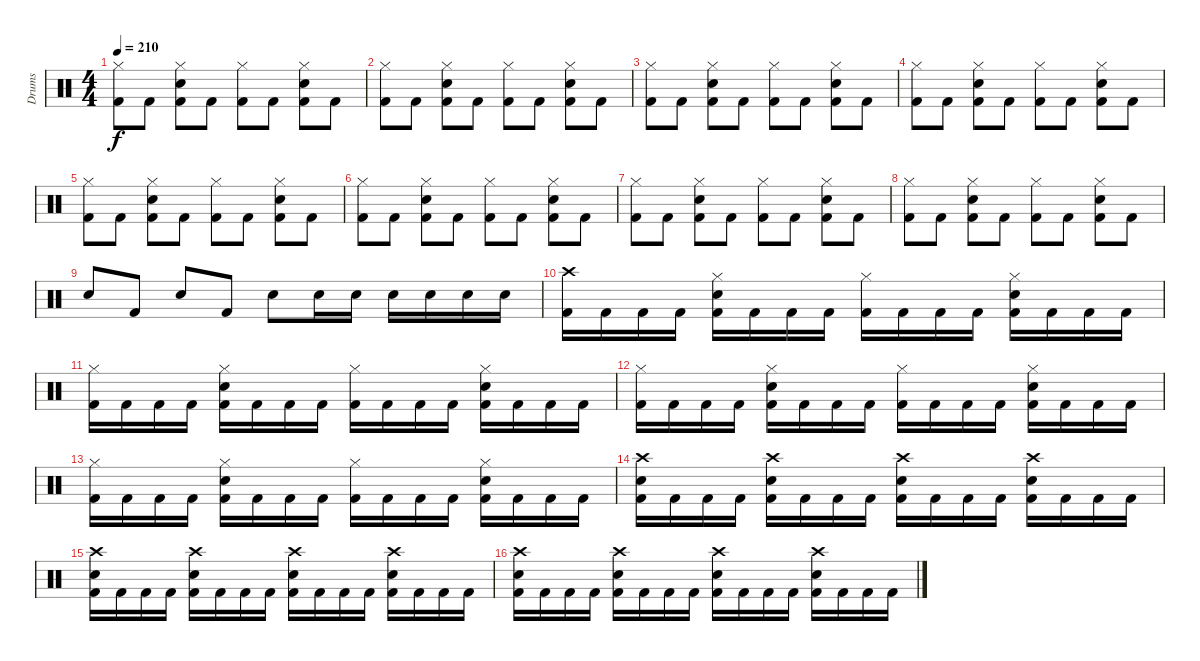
\track ("Drums" "Drums") {instrument percussion}
\staff {score}
\articulation defaults
\ts (4 4)
\tempo 210
\clef neutral
\ks c
("Hi-Hat (closed)" "Kick (hit) 2").8{dy f} "Kick (hit) 2".8 ("Hi-Hat (closed)" "Electric Snare (hit)" "Kick (hit) 2").8 "Kick (hit) 2".8 ("Hi-Hat (closed)" "Kick (hit) 2").8 "Kick (hit) 2".8 ("Hi-Hat (closed)" "Electric Snare (hit)" "Kick (hit) 2").8 "Kick (hit) 2".8 |
("Hi-Hat (closed)" "Kick (hit) 2").8 "Kick (hit) 2".8 ("Hi-Hat (closed)" "Electric Snare (hit)" "Kick (hit) 2").8 "Kick (hit) 2".8 ("Hi-Hat (closed)" "Kick (hit) 2").8 "Kick (hit) 2".8 ("Hi-Hat (closed)" "Electric Snare (hit)" "Kick (hit) 2").8 "Kick (hit) 2".8 |
("Hi-Hat (closed)" "Kick (hit) 2").8 "Kick (hit) 2".8 ("Hi-Hat (closed)" "Electric Snare (hit)" "Kick (hit) 2").8 "Kick (hit) 2".8 ("Hi-Hat (closed)" "Kick (hit) 2").8 "Kick (hit) 2".8 ("Hi-Hat (closed)" "Electric Snare (hit)" "Kick (hit) 2").8 "Kick (hit) 2".8 |
("Hi-Hat (closed)" "Kick (hit) 2").8 "Kick (hit) 2".8 ("Hi-Hat (closed)" "Electric Snare (hit)" "Kick (hit) 2").8 "Kick (hit) 2".8 ("Hi-Hat (closed)" "Kick (hit) 2").8 "Kick (hit) 2".8 ("Hi-Hat (closed)" "Electric Snare (hit)" "Kick (hit) 2").8 "Kick (hit) 2".8 |
("Hi-Hat (closed)" "Kick (hit) 2").8 "Kick (hit) 2".8 ("Hi-Hat (closed)" "Electric Snare (hit)" "Kick (hit) 2").8 "Kick (hit) 2".8 ("Hi-Hat (closed)" "Kick (hit) 2").8 "Kick (hit) 2".8 ("Hi-Hat (closed)" "Electric Snare (hit)" "Kick (hit) 2").8 "Kick (hit) 2".8 |
("Hi-Hat (closed)" "Kick (hit) 2").8 "Kick (hit) 2".8 ("Hi-Hat (closed)" "Electric Snare (hit)" "Kick (hit) 2").8 "Kick (hit) 2".8 ("Hi-Hat (closed)" "Kick (hit) 2").8 "Kick (hit) 2".8 ("Hi-Hat (closed)" "Electric Snare (hit)" "Kick (hit) 2").8 "Kick (hit) 2".8 |
("Hi-Hat (closed)" "Kick (hit) 2").8 "Kick (hit) 2".8 ("Hi-Hat (closed)" "Electric Snare (hit)" "Kick (hit) 2").8 "Kick (hit) 2".8 ("Hi-Hat (closed)" "Kick (hit) 2").8 "Kick (hit) 2".8 ("Hi-Hat (closed)" "Electric Snare (hit)" "Kick (hit) 2").8 "Kick (hit) 2".8 |
("Hi-Hat (closed)" "Kick (hit) 2").8 "Kick (hit) 2".8 ("Hi-Hat (closed)" "Electric Snare (hit)" "Kick (hit) 2").8 "Kick (hit) 2".8 ("Hi-Hat (closed)" "Kick (hit) 2").8 "Kick (hit) 2".8 ("Hi-Hat (closed)" "Electric Snare (hit)" "Kick (hit) 2").8 "Kick (hit) 2".8 |
"Electric Snare (hit)".8 "Kick (hit) 2".8 "Electric Snare (hit)".8 "Kick (hit) 2".8 "Electric Snare (hit)".8 "Electric Snare (hit)".16 "Electric Snare (hit)".16 "Electric Snare (hit)".16 "Electric Snare (hit)".16 "Electric Snare (hit)".16 "Electric Snare (hit)".16 |
("Crash high (hit)" "Kick (hit) 2").16 "Kick (hit) 2".16 "Kick (hit) 2".16 "Kick (hit) 2".16 ("Hi-Hat (closed)" "Electric Snare (hit)" "Kick (hit) 2").16 "Kick (hit) 2".16 "Kick (hit) 2".16 "Kick (hit) 2".16 ("Hi-Hat (closed)" "Kick (hit) 2").16 "Kick (hit) 2".16 "Kick (hit) 2".16 "Kick (hit) 2".16 ("Hi-Hat (closed)" "Electric Snare (hit)" "Kick (hit) 2").16 "Kick (hit) 2".16 "Kick (hit) 2".16 "Kick (hit) 2".16 |
("Hi-Hat (closed)" "Kick (hit) 2").16 "Kick (hit) 2".16 "Kick (hit) 2".16 "Kick (hit) 2".16 ("Hi-Hat (closed)" "Electric Snare (hit)" "Kick (hit) 2").16 "Kick (hit) 2".16 "Kick (hit) 2".16 "Kick (hit) 2".16 ("Hi-Hat (closed)" "Kick (hit) 2").16 "Kick (hit) 2".16 "Kick (hit) 2".16 "Kick (hit) 2".16 ("Hi-Hat (closed)" "Electric Snare (hit)" "Kick (hit) 2").16 "Kick (hit) 2".16 "Kick (hit) 2".16 "Kick (hit) 2".16 |
("Hi-Hat (closed)" "Kick (hit) 2").16 "Kick (hit) 2".16 "Kick (hit) 2".16 "Kick (hit) 2".16 ("Hi-Hat (closed)" "Electric Snare (hit)" "Kick (hit) 2").16 "Kick (hit) 2".16 "Kick (hit) 2".16 "Kick (hit) 2".16 ("Hi-Hat (closed)" "Kick (hit) 2").16 "Kick (hit) 2".16 "Kick (hit) 2".16 "Kick (hit) 2".16 ("Hi-Hat (closed)" "Electric Snare (hit)" "Kick (hit) 2").16 "Kick (hit) 2".16 "Kick (hit) 2".16 "Kick (hit) 2".16 |
("Hi-Hat (closed)" "Kick (hit) 2").16 "Kick (hit) 2".16 "Kick (hit) 2".16 "Kick (hit) 2".16 ("Hi-Hat (closed)" "Electric Snare (hit)" "Kick (hit) 2").16 "Kick (hit) 2".16 "Kick (hit) 2".16 "Kick (hit) 2".16 ("Hi-Hat (closed)" "Kick (hit) 2").16 "Kick (hit) 2".16 "Kick (hit) 2".16 "Kick (hit) 2".16 ("Hi-Hat (closed)" "Electric Snare (hit)" "Kick (hit) 2").16 "Kick (hit) 2".16 "Kick (hit) 2".16 "Kick (hit) 2".16 |
("Crash high (hit)" "Electric Snare (hit)" "Kick (hit) 2").16 "Kick (hit) 2".16 "Kick (hit) 2".16 "Kick (hit) 2".16 ("Crash high (hit)" "Electric Snare (hit)" "Kick (hit) 2").16 "Kick (hit) 2".16 "Kick (hit) 2".16 "Kick (hit) 2".16 ("Crash high (hit)" "Electric Snare (hit)" "Kick (hit) 2").16 "Kick (hit) 2".16 "Kick (hit) 2".16 "Kick (hit) 2".16 ("Crash high (hit)" "Electric Snare (hit)" "Kick (hit) 2").16 "Kick (hit) 2".16 "Kick (hit) 2".16 "Kick (hit) 2".16 |
("Crash high (hit)" "Electric Snare (hit)" "Kick (hit) 2").16 "Kick (hit) 2".16 "Kick (hit) 2".16 "Kick (hit) 2".16 ("Crash high (hit)" "Electric Snare (hit)" "Kick (hit) 2").16 "Kick (hit) 2".16 "Kick (hit) 2".16 "Kick (hit) 2".16 ("Crash high (hit)" "Electric Snare (hit)" "Kick (hit) 2").16 "Kick (hit) 2".16 "Kick (hit) 2".16 "Kick (hit) 2".16 ("Crash high (hit)" "Electric Snare (hit)" "Kick (hit) 2").16 "Kick (hit) 2".16 "Kick (hit) 2".16 "Kick (hit) 2".16 |
("Crash high (hit)" "Electric Snare (hit)" "Kick (hit) 2").16 "Kick (hit) 2".16 "Kick (hit) 2".16 "Kick (hit) 2".16 ("Crash high (hit)" "Electric Snare (hit)" "Kick (hit) 2").16 "Kick (hit) 2".16 "Kick (hit) 2".16 "Kick (hit) 2".16 ("Crash high (hit)" "Electric Snare (hit)" "Kick (hit) 2").16 "Kick (hit) 2".16 "Kick (hit) 2".16 "Kick (hit) 2".16 ("Crash high (hit)" "Electric Snare (hit)" "Kick (hit) 2").16 "Kick (hit) 2".16 "Kick (hit) 2".16 "Kick (hit) 2".16
